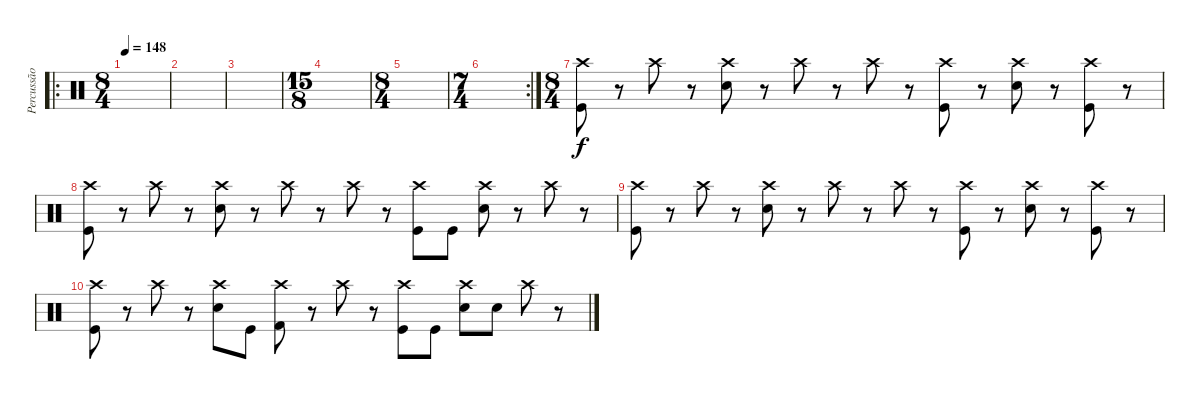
\track ("Percussão" "Percussão") {instrument percussion}
\staff {score}
\articulation defaults
\ro
\ts (8 4)
\tempo 148
\clef neutral
\ks c
|
|
|
\ts (15 8)
|
\ts (8 4)
|
\rc 2
\ts (7 4)
|
\ts (8 4)
("Crash high (hit)" "Kick (hit)").8 r.8 "Crash high (hit)".8 r.8 ("Crash high (hit)" "Snare (hit) 2").8 r.8 "Crash high (hit)".8 r.8 "Crash high (hit)".8 r.8 ("Crash high (hit)" "Kick (hit)").8 r.8 ("Crash high (hit)" "Snare (hit) 2").8 r.8 ("Crash high (hit)" "Kick (hit)").8 r.8 |
("Crash high (hit)" "Kick (hit)").8 r.8 "Crash high (hit)".8 r.8 ("Crash high (hit)" "Snare (hit) 2").8 r.8 "Crash high (hit)".8 r.8 "Crash high (hit)".8 r.8 ("Crash high (hit)" "Kick (hit)").8 "Kick (hit)".8 ("Crash high (hit)" "Snare (hit) 2").8 r.8 "Crash high (hit)".8 r.8 |
("Crash high (hit)" "Kick (hit)").8 r.8 "Crash high (hit)".8 r.8 ("Crash high (hit)" "Snare (hit) 2").8 r.8 "Crash high (hit)".8 r.8 "Crash high (hit)".8 r.8 ("Crash high (hit)" "Kick (hit)").8 r.8 ("Crash high (hit)" "Snare (hit) 2").8 r.8 ("Crash high (hit)" "Kick (hit)").8 r.8 |
("Crash high (hit)" "Kick (hit)").8 r.8 "Crash high (hit)".8 r.8 ("Crash high (hit)" "Snare (hit) 2").8 "Kick (hit)".8 ("Crash high (hit)" "Kick (hit) 2").8 r.8 "Crash high (hit)".8 r.8 ("Crash high (hit)" "Kick (hit)").8 "Kick (hit)".8 ("Crash high (hit)" "Snare (hit) 2").8 "Snare (hit) 2".8 "Crash high (hit)".8 r.8
